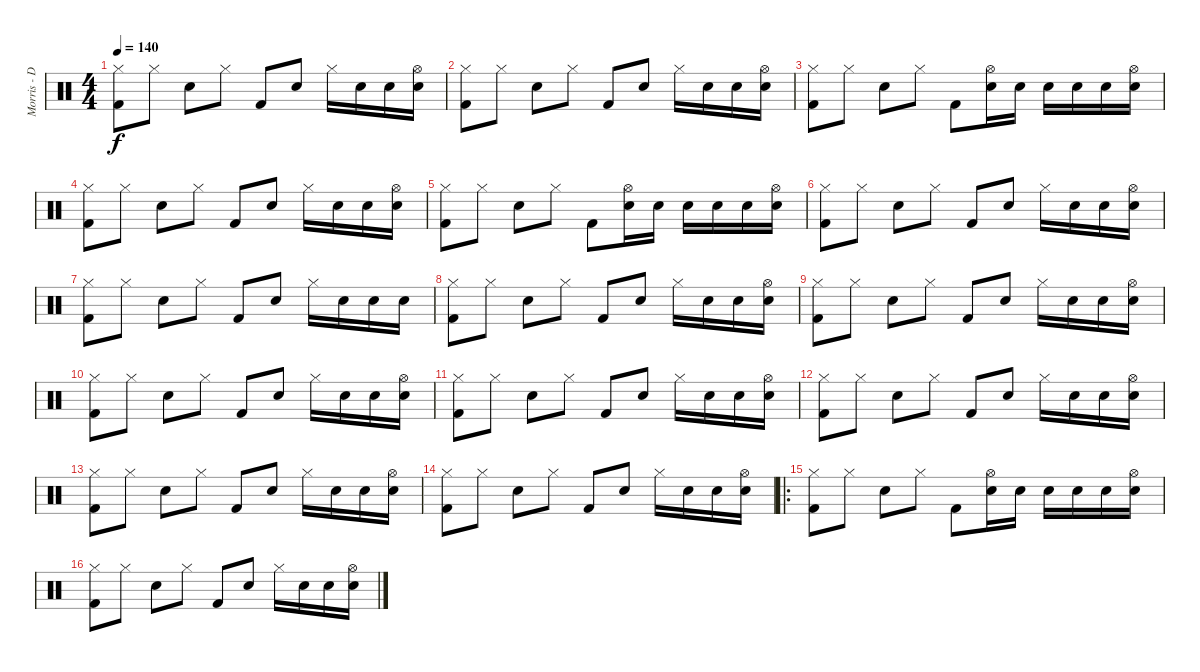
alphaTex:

\track ("Morris - Drums" "Morris - D") {instrument percussion}
\staff {score}
\articulation defaults
\ts (4 4)
\tempo 140
\clef neutral
\ks c
("Kick (hit) 2" "Hi-Hat (closed)").8{dy f} "Hi-Hat (closed)".8 "Snare (hit) 2".8 "Hi-Hat (closed)".8 "Kick (hit) 2".8 "Snare (hit) 2".8 "Hi-Hat (closed)".16 "Snare (hit) 2".16 "Snare (hit) 2".16 ("Snare (hit) 2" "Hi-Hat (open)").16 |
("Kick (hit) 2" "Hi-Hat (closed)").8 "Hi-Hat (closed)".8 "Snare (hit) 2".8 "Hi-Hat (closed)".8 "Kick (hit) 2".8 "Snare (hit) 2".8 "Hi-Hat (closed)".16 "Snare (hit) 2".16 "Snare (hit) 2".16 ("Snare (hit) 2" "Hi-Hat (open)").16 |
("Kick (hit) 2" "Hi-Hat (closed)").8 "Hi-Hat (closed)".8 "Snare (hit) 2".8 "Hi-Hat (closed)".8 "Kick (hit) 2".8 ("Snare (hit) 2" "Hi-Hat (open)").16 "Snare (hit) 2".16 "Snare (hit) 2".16 "Snare (hit) 2".16 "Snare (hit) 2".16 ("Snare (hit) 2" "Hi-Hat (open)").16 |
("Kick (hit) 2" "Hi-Hat (closed)").8 "Hi-Hat (closed)".8 "Snare (hit) 2".8 "Hi-Hat (closed)".8 "Kick (hit) 2".8 "Snare (hit) 2".8 "Hi-Hat (closed)".16 "Snare (hit) 2".16 "Snare (hit) 2".16 ("Snare (hit) 2" "Hi-Hat (open)").16 |
("Kick (hit) 2" "Hi-Hat (closed)").8 "Hi-Hat (closed)".8 "Snare (hit) 2".8 "Hi-Hat (closed)".8 "Kick (hit) 2".8 ("Snare (hit) 2" "Hi-Hat (open)").16 "Snare (hit) 2".16 "Snare (hit) 2".16 "Snare (hit) 2".16 "Snare (hit) 2".16 ("Snare (hit) 2" "Hi-Hat (open)").16 |
("Kick (hit) 2" "Hi-Hat (closed)").8 "Hi-Hat (closed)".8 "Snare (hit) 2".8 "Hi-Hat (closed)".8 "Kick (hit) 2".8 "Snare (hit) 2".8 "Hi-Hat (closed)".16 "Snare (hit) 2".16 "Snare (hit) 2".16 ("Snare (hit) 2" "Hi-Hat (open)").16 |
("Kick (hit) 2" "Hi-Hat (closed)").8 "Hi-Hat (closed)".8 "Snare (hit) 2".8 "Hi-Hat (closed)".8 "Kick (hit) 2".8 "Snare (hit) 2".8 "Hi-Hat (closed)".16 "Snare (hit) 2".16 "Snare (hit) 2".16 "Snare (hit) 2".16 |
("Kick (hit) 2" "Hi-Hat (closed)").8 "Hi-Hat (closed)".8 "Snare (hit) 2".8 "Hi-Hat (closed)".8 "Kick (hit) 2".8 "Snare (hit) 2".8 "Hi-Hat (closed)".16 "Snare (hit) 2".16 "Snare (hit) 2".16 ("Snare (hit) 2" "Hi-Hat (open)").16 |
("Kick (hit) 2" "Hi-Hat (closed)").8 "Hi-Hat (closed)".8 "Snare (hit) 2".8 "Hi-Hat (closed)".8 "Kick (hit) 2".8 "Snare (hit) 2".8 "Hi-Hat (closed)".16 "Snare (hit) 2".16 "Snare (hit) 2".16 ("Snare (hit) 2" "Hi-Hat (open)").16 |
("Kick (hit) 2" "Hi-Hat (closed)").8 "Hi-Hat (closed)".8 "Snare (hit) 2".8 "Hi-Hat (closed)".8 "Kick (hit) 2".8 "Snare (hit) 2".8 "Hi-Hat (closed)".16 "Snare (hit) 2".16 "Snare (hit) 2".16 ("Snare (hit) 2" "Hi-Hat (open)").16 |
("Kick (hit) 2" "Hi-Hat (closed)").8 "Hi-Hat (closed)".8 "Snare (hit) 2".8 "Hi-Hat (closed)".8 "Kick (hit) 2".8 "Snare (hit) 2".8 "Hi-Hat (closed)".16 "Snare (hit) 2".16 "Snare (hit) 2".16 ("Snare (hit) 2" "Hi-Hat (open)").16 |
("Kick (hit) 2" "Hi-Hat (closed)").8 "Hi-Hat (closed)".8 "Snare (hit) 2".8 "Hi-Hat (closed)".8 "Kick (hit) 2".8 "Snare (hit) 2".8 "Hi-Hat (closed)".16 "Snare (hit) 2".16 "Snare (hit) 2".16 ("Snare (hit) 2" "Hi-Hat (open)").16 |
("Kick (hit) 2" "Hi-Hat (closed)").8 "Hi-Hat (closed)".8 "Snare (hit) 2".8 "Hi-Hat (closed)".8 "Kick (hit) 2".8 "Snare (hit) 2".8 "Hi-Hat (closed)".16 "Snare (hit) 2".16 "Snare (hit) 2".16 ("Snare (hit) 2" "Hi-Hat (open)").16 |
("Kick (hit) 2" "Hi-Hat (closed)").8 "Hi-Hat (closed)".8 "Snare (hit) 2".8 "Hi-Hat (closed)".8 "Kick (hit) 2".8 "Snare (hit) 2".8 "Hi-Hat (closed)".16 "Snare (hit) 2".16 "Snare (hit) 2".16 ("Snare (hit) 2" "Hi-Hat (open)").16 |
\ro
("Kick (hit) 2" "Hi-Hat (closed)").8 "Hi-Hat (closed)".8 "Snare (hit) 2".8 "Hi-Hat (closed)".8 "Kick (hit) 2".8 ("Snare (hit) 2" "Hi-Hat (open)").16 "Snare (hit) 2".16 "Snare (hit) 2".16 "Snare (hit) 2".16 "Snare (hit) 2".16 ("Snare (hit) 2" "Hi-Hat (open)").16 |
("Kick (hit) 2" "Hi-Hat (closed)").8 "Hi-Hat (closed)".8 "Snare (hit) 2".8 "Hi-Hat (closed)".8 "Kick (hit) 2".8 "Snare (hit) 2".8 "Hi-Hat (closed)".16 "Snare (hit) 2".16 "Snare (hit) 2".16 ("Snare (hit) 2" "Hi-Hat (open)").16
